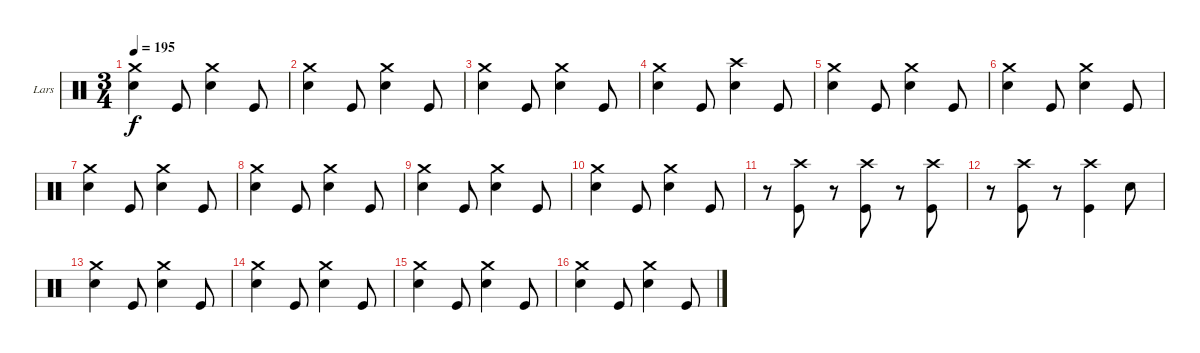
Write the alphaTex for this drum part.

\bracketExtendMode groupsimilarinstruments
\firstSystemTrackNameOrientation horizontal
\otherSystemsTrackNameOrientation horizontal
\track ("Drumkit" "Lars") {instrument percussion}
\staff {score}
\articulation defaults
\ts (3 4)
\tempo 195
\clef neutral
\ks c
("Crash medium (hit)" "Snare (hit) 2").4{dy f} "Kick (hit)".8 ("Crash medium (hit)" "Snare (hit) 2").4 "Kick (hit)".8 |
("Crash medium (hit)" "Snare (hit) 2").4 "Kick (hit)".8 ("Crash medium (hit)" "Snare (hit) 2").4 "Kick (hit)".8 |
("Crash medium (hit)" "Snare (hit) 2").4 "Kick (hit)".8 ("Crash medium (hit)" "Snare (hit) 2").4 "Kick (hit)".8 |
("Crash medium (hit)" "Snare (hit) 2").4 "Kick (hit)".8 ("Crash high (hit)" "Snare (hit) 2").4 "Kick (hit)".8 |
("Crash medium (hit)" "Snare (hit) 2").4 "Kick (hit)".8 ("Crash medium (hit)" "Snare (hit) 2").4 "Kick (hit)".8 |
("Crash medium (hit)" "Snare (hit) 2").4 "Kick (hit)".8 ("Crash medium (hit)" "Snare (hit) 2").4 "Kick (hit)".8 |
("Crash medium (hit)" "Snare (hit) 2").4 "Kick (hit)".8 ("Crash medium (hit)" "Snare (hit) 2").4 "Kick (hit)".8 |
("Crash medium (hit)" "Snare (hit) 2").4 "Kick (hit)".8 ("Crash medium (hit)" "Snare (hit) 2").4 "Kick (hit)".8 |
("Crash medium (hit)" "Snare (hit) 2").4 "Kick (hit)".8 ("Crash medium (hit)" "Snare (hit) 2").4 "Kick (hit)".8 |
("Crash medium (hit)" "Snare (hit) 2").4 "Kick (hit)".8 ("Crash medium (hit)" "Snare (hit) 2").4 "Kick (hit)".8 |
r.8 ("Crash high (hit)" "Kick (hit)").8 r.8 ("Crash high (hit)" "Kick (hit)").8 r.8 ("Crash high (hit)" "Kick (hit)").8 |
r.8 ("Crash high (hit)" "Kick (hit)").8 r.8 ("Crash high (hit)" "Kick (hit)").4 "Snare (hit) 2".8 |
("Crash medium (hit)" "Snare (hit) 2").4 "Kick (hit)".8 ("Crash medium (hit)" "Snare (hit) 2").4 "Kick (hit)".8 |
("Crash medium (hit)" "Snare (hit) 2").4 "Kick (hit)".8 ("Crash medium (hit)" "Snare (hit) 2").4 "Kick (hit)".8 |
("Crash medium (hit)" "Snare (hit) 2").4 "Kick (hit)".8 ("Crash medium (hit)" "Snare (hit) 2").4 "Kick (hit)".8 |
("Crash medium (hit)" "Snare (hit) 2").4 "Kick (hit)".8 ("Crash medium (hit)" "Snare (hit) 2").4 "Kick (hit)".8
